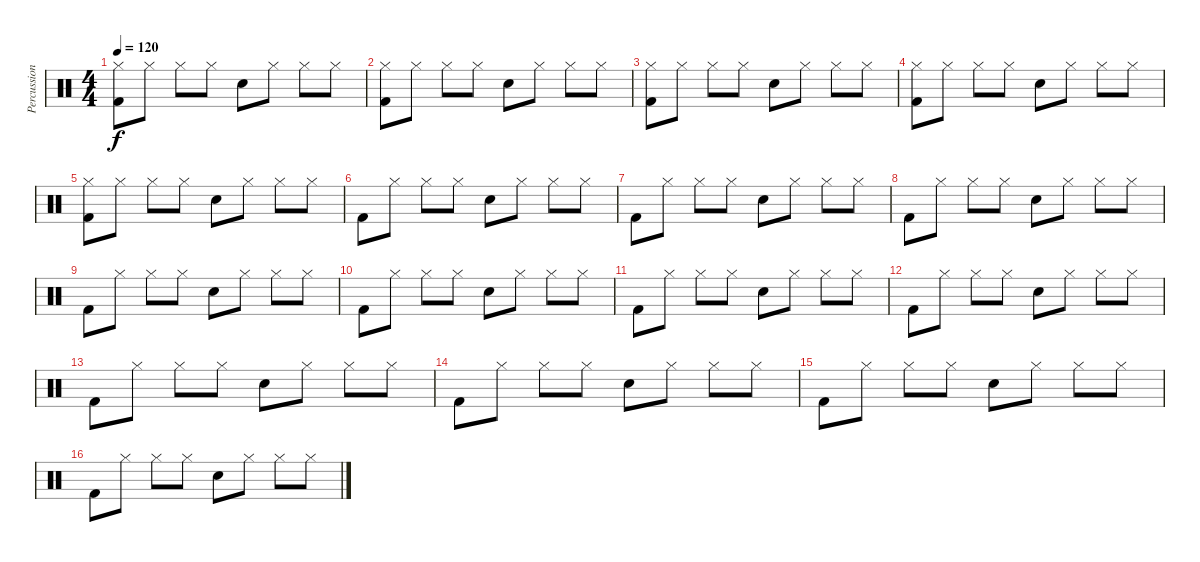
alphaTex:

\track ("Percussions" "Percussion") {instrument percussion}
\staff {score}
\articulation defaults
\ts (4 4)
\tempo 120
\clef neutral
\ks c
("Hi-Hat (closed)" "Kick (hit) 2").8{dy f} "Hi-Hat (closed)".8 "Hi-Hat (closed)".8 "Hi-Hat (closed)".8 "Electric Snare (hit)".8 "Hi-Hat (closed)".8 "Hi-Hat (closed)".8 "Hi-Hat (closed)".8 |
("Hi-Hat (closed)" "Kick (hit) 2").8 "Hi-Hat (closed)".8 "Hi-Hat (closed)".8 "Hi-Hat (closed)".8 "Electric Snare (hit)".8 "Hi-Hat (closed)".8 "Hi-Hat (closed)".8 "Hi-Hat (closed)".8 |
("Hi-Hat (closed)" "Kick (hit) 2").8 "Hi-Hat (closed)".8 "Hi-Hat (closed)".8 "Hi-Hat (closed)".8 "Electric Snare (hit)".8 "Hi-Hat (closed)".8 "Hi-Hat (closed)".8 "Hi-Hat (closed)".8 |
("Hi-Hat (closed)" "Kick (hit) 2").8 "Hi-Hat (closed)".8 "Hi-Hat (closed)".8 "Hi-Hat (closed)".8 "Electric Snare (hit)".8 "Hi-Hat (closed)".8 "Hi-Hat (closed)".8 "Hi-Hat (closed)".8 |
("Hi-Hat (closed)" "Kick (hit) 2").8 "Hi-Hat (closed)".8 "Hi-Hat (closed)".8 "Hi-Hat (closed)".8 "Electric Snare (hit)".8 "Hi-Hat (closed)".8 "Hi-Hat (closed)".8 "Hi-Hat (closed)".8 |
"Kick (hit) 2".8 "Hi-Hat (closed)".8 "Hi-Hat (closed)".8 "Hi-Hat (closed)".8 "Electric Snare (hit)".8 "Hi-Hat (closed)".8 "Hi-Hat (closed)".8 "Hi-Hat (closed)".8 |
"Kick (hit) 2".8 "Hi-Hat (closed)".8 "Hi-Hat (closed)".8 "Hi-Hat (closed)".8 "Electric Snare (hit)".8 "Hi-Hat (closed)".8 "Hi-Hat (closed)".8 "Hi-Hat (closed)".8 |
"Kick (hit) 2".8 "Hi-Hat (closed)".8 "Hi-Hat (closed)".8 "Hi-Hat (closed)".8 "Electric Snare (hit)".8 "Hi-Hat (closed)".8 "Hi-Hat (closed)".8 "Hi-Hat (closed)".8 |
"Kick (hit) 2".8 "Hi-Hat (closed)".8 "Hi-Hat (closed)".8 "Hi-Hat (closed)".8 "Electric Snare (hit)".8 "Hi-Hat (closed)".8 "Hi-Hat (closed)".8 "Hi-Hat (closed)".8 |
"Kick (hit) 2".8 "Hi-Hat (closed)".8 "Hi-Hat (closed)".8 "Hi-Hat (closed)".8 "Electric Snare (hit)".8 "Hi-Hat (closed)".8 "Hi-Hat (closed)".8 "Hi-Hat (closed)".8 |
"Kick (hit) 2".8 "Hi-Hat (closed)".8 "Hi-Hat (closed)".8 "Hi-Hat (closed)".8 "Electric Snare (hit)".8 "Hi-Hat (closed)".8 "Hi-Hat (closed)".8 "Hi-Hat (closed)".8 |
"Kick (hit) 2".8 "Hi-Hat (closed)".8 "Hi-Hat (closed)".8 "Hi-Hat (closed)".8 "Electric Snare (hit)".8 "Hi-Hat (closed)".8 "Hi-Hat (closed)".8 "Hi-Hat (closed)".8 |
"Kick (hit) 2".8 "Hi-Hat (closed)".8 "Hi-Hat (closed)".8 "Hi-Hat (closed)".8 "Electric Snare (hit)".8 "Hi-Hat (closed)".8 "Hi-Hat (closed)".8 "Hi-Hat (closed)".8 |
"Kick (hit) 2".8 "Hi-Hat (closed)".8 "Hi-Hat (closed)".8 "Hi-Hat (closed)".8 "Electric Snare (hit)".8 "Hi-Hat (closed)".8 "Hi-Hat (closed)".8 "Hi-Hat (closed)".8 |
"Kick (hit) 2".8 "Hi-Hat (closed)".8 "Hi-Hat (closed)".8 "Hi-Hat (closed)".8 "Electric Snare (hit)".8 "Hi-Hat (closed)".8 "Hi-Hat (closed)".8 "Hi-Hat (closed)".8 |
"Kick (hit) 2".8 "Hi-Hat (closed)".8 "Hi-Hat (closed)".8 "Hi-Hat (closed)".8 "Electric Snare (hit)".8 "Hi-Hat (closed)".8 "Hi-Hat (closed)".8 "Hi-Hat (closed)".8
